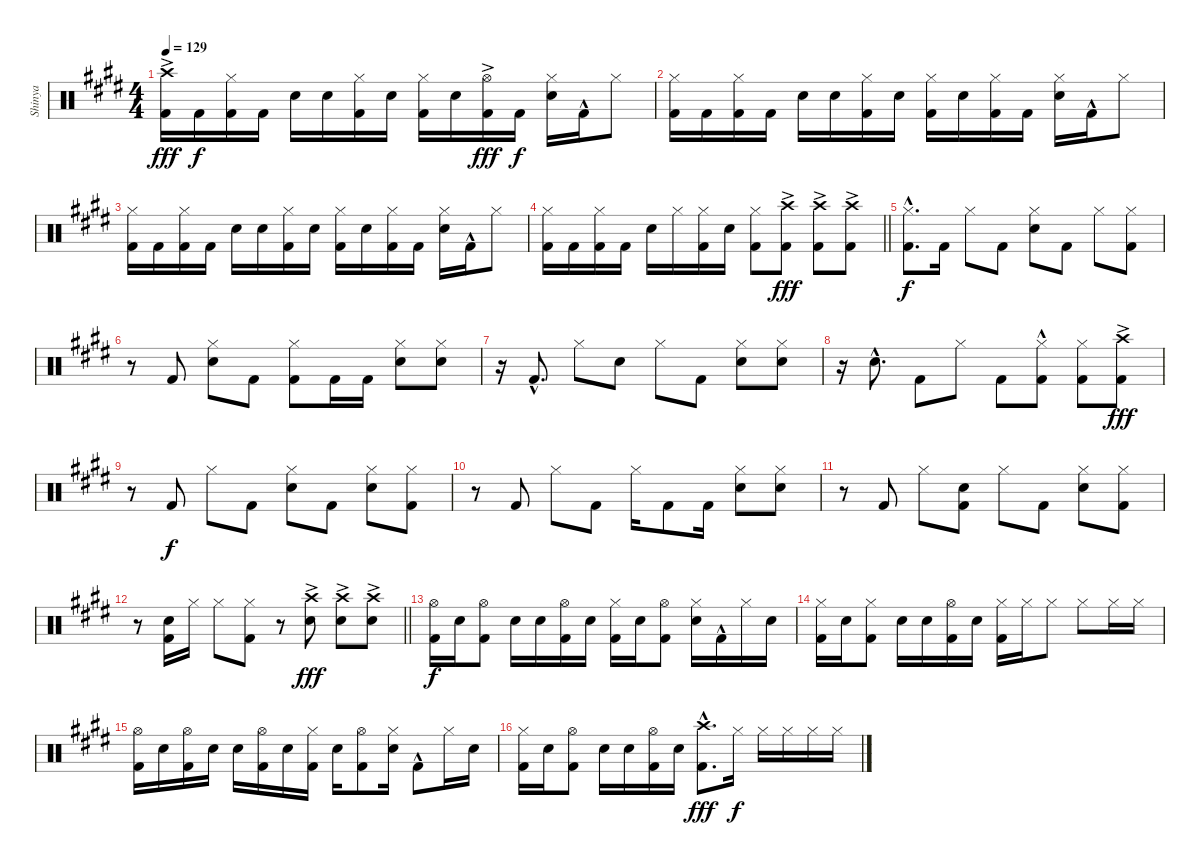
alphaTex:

\track ("Shinya" "Shinya") {instrument percussion}
\staff {score}
\articulation defaults
\ts (4 4)
\tempo 129
\clef neutral
\ks e
("Crash high (hit)"{ac} "Kick (hit) 2").16{dy fff} "Kick (hit) 2".16{dy f} ("Hi-Hat (closed)" "Kick (hit) 2").16 "Kick (hit) 2".16 "Snare (hit) 2".16 "Snare (hit) 2".16 ("Hi-Hat (closed)" "Kick (hit) 2").16 "Snare (hit) 2".16 ("Hi-Hat (closed)" "Kick (hit) 2").16 "Snare (hit) 2".16 ("Hi-Hat (open)"{ac} "Kick (hit) 2").16{dy fff} "Kick (hit) 2".16{dy f} ("Hi-Hat (closed)" "Snare (hit) 2").16 "Kick (hit) 2"{hac}.16 "Hi-Hat (closed)".8 |
("Hi-Hat (closed)" "Kick (hit) 2").16 "Kick (hit) 2".16 ("Hi-Hat (closed)" "Kick (hit) 2").16 "Kick (hit) 2".16 "Snare (hit) 2".16 "Snare (hit) 2".16 ("Hi-Hat (closed)" "Kick (hit) 2").16 "Snare (hit) 2".16 ("Hi-Hat (closed)" "Kick (hit) 2").16 "Snare (hit) 2".16 ("Hi-Hat (closed)" "Kick (hit) 2").16 "Kick (hit) 2".16 ("Hi-Hat (closed)" "Snare (hit) 2").16 "Kick (hit) 2"{hac}.16 "Hi-Hat (closed)".8 |
("Hi-Hat (closed)" "Kick (hit) 2").16 "Kick (hit) 2".16 ("Hi-Hat (closed)" "Kick (hit) 2").16 "Kick (hit) 2".16 "Snare (hit) 2".16 "Snare (hit) 2".16 ("Hi-Hat (closed)" "Kick (hit) 2").16 "Snare (hit) 2".16 ("Hi-Hat (closed)" "Kick (hit) 2").16 "Snare (hit) 2".16 ("Hi-Hat (closed)" "Kick (hit) 2").16 "Kick (hit) 2".16 ("Hi-Hat (closed)" "Snare (hit) 2").16 "Kick (hit) 2"{hac}.16 "Hi-Hat (closed)".8 |
\barLineRight lightlight
("Hi-Hat (closed)" "Kick (hit) 2").16 "Kick (hit) 2".16 ("Hi-Hat (closed)" "Kick (hit) 2").16 "Kick (hit) 2".16 "Snare (hit) 2".16 "Hi-Hat (closed)".16 ("Hi-Hat (closed)" "Kick (hit) 2").16 "Snare (hit) 2".16 ("Hi-Hat (closed)" "Kick (hit) 2").8 ("Crash high (hit)"{ac} "Kick (hit) 2").8{dy fff} ("Crash high (hit)"{ac} "Kick (hit) 2").8 ("Crash high (hit)"{ac} "Kick (hit) 2").8 |
("Hi-Hat (closed)"{hac} "Kick (hit) 2"{hac}).8{d dy f} "Kick (hit) 2".16 "Hi-Hat (closed)".8 "Kick (hit) 2".8 ("Hi-Hat (closed)" "Snare (hit) 2").8 "Kick (hit) 2".8 "Hi-Hat (closed)".8 ("Hi-Hat (closed)" "Kick (hit) 2").8 |
r.8 "Kick (hit) 2".8 ("Hi-Hat (closed)" "Snare (hit) 2").8 "Kick (hit) 2".8 ("Hi-Hat (closed)" "Kick (hit) 2").8 "Kick (hit) 2".16 "Kick (hit) 2".16 ("Hi-Hat (closed)" "Snare (hit) 2").8 ("Hi-Hat (closed)" "Snare (hit) 2").8 |
r.16 "Kick (hit) 2"{hac}.8{d} "Hi-Hat (closed)".8 "Snare (hit) 2".8 "Hi-Hat (closed)".8 "Kick (hit) 2".8 ("Hi-Hat (closed)" "Snare (hit) 2").8 ("Hi-Hat (closed)" "Snare (hit) 2").8 |
r.16 "Snare (hit) 2"{hac}.8{d} "Kick (hit) 2".8 "Hi-Hat (closed)".8 "Kick (hit) 2".8 ("Hi-Hat (closed)" "Kick (hit) 2"{hac}).8 ("Hi-Hat (closed)" "Kick (hit) 2").8 ("Crash high (hit)"{ac} "Kick (hit) 2").8{dy fff} |
r.8 "Kick (hit) 2".8{dy f} "Hi-Hat (closed)".8 "Kick (hit) 2".8 ("Hi-Hat (closed)" "Snare (hit) 2").8 "Kick (hit) 2".8 ("Hi-Hat (closed)" "Snare (hit) 2").8 ("Hi-Hat (closed)" "Kick (hit) 2").8 |
r.8 "Kick (hit) 2".8 "Hi-Hat (closed)".8 "Kick (hit) 2".8 "Hi-Hat (closed)".16 "Kick (hit) 2".8 "Kick (hit) 2".16 ("Hi-Hat (closed)" "Snare (hit) 2").8 ("Hi-Hat (closed)" "Snare (hit) 2").8 |
r.8 "Kick (hit) 2".8 "Hi-Hat (closed)".8 ("Snare (hit) 2" "Kick (hit) 2").8 "Hi-Hat (closed)".8 "Kick (hit) 2".8 ("Hi-Hat (closed)" "Snare (hit) 2").8 ("Hi-Hat (closed)" "Kick (hit) 2").8 |
\barLineRight lightlight
r.8 ("Snare (hit) 2" "Kick (hit) 2").16 "Hi-Hat (closed)".16 "Hi-Hat (closed)".8 ("Hi-Hat (closed)" "Kick (hit) 2").8 r.8 ("Crash high (hit)"{ac} "Snare (hit) 2").8{dy fff} ("Crash high (hit)"{ac} "Snare (hit) 2").8 ("Crash high (hit)"{ac} "Snare (hit) 2").8 |
("Hi-Hat (open)" "Kick (hit) 2").16{dy f} "Snare (hit) 2".16 ("Hi-Hat (open)" "Kick (hit) 2").8 "Snare (hit) 2".16 "Snare (hit) 2".16 ("Hi-Hat (open)" "Kick (hit) 2").16 "Snare (hit) 2".16 ("Hi-Hat (closed)" "Kick (hit) 2").16 "Snare (hit) 2".16 ("Hi-Hat (open)" "Kick (hit) 2").8 ("Hi-Hat (closed)" "Snare (hit) 2").16 "Kick (hit) 2"{hac}.16 "Hi-Hat (closed)".16 "Snare (hit) 2".16 |
("Hi-Hat (closed)" "Kick (hit) 2").16 "Snare (hit) 2".16 ("Hi-Hat (closed)" "Kick (hit) 2").8 "Snare (hit) 2".16 "Snare (hit) 2".16 ("Hi-Hat (open)" "Kick (hit) 2").16 "Snare (hit) 2".16 ("Hi-Hat (closed)" "Kick (hit) 2").16 "Hi-Hat (closed)".16 "Hi-Hat (closed)".8 "Hi-Hat (closed)".8 "Hi-Hat (closed)".16 "Hi-Hat (closed)".16 |
("Hi-Hat (open)" "Kick (hit) 2").16 "Snare (hit) 2".16 ("Hi-Hat (open)" "Kick (hit) 2").16 "Snare (hit) 2".16 "Snare (hit) 2".16 ("Hi-Hat (open)" "Kick (hit) 2").16 "Snare (hit) 2".16 ("Hi-Hat (closed)" "Kick (hit) 2").16 "Snare (hit) 2".16 ("Hi-Hat (open)" "Kick (hit) 2").8 ("Hi-Hat (closed)" "Snare (hit) 2").16 "Kick (hit) 2"{hac}.8 "Hi-Hat (closed)".16 "Snare (hit) 2".16 |
("Hi-Hat (closed)" "Kick (hit) 2").16 "Snare (hit) 2".16 ("Hi-Hat (open)" "Kick (hit) 2").8 "Snare (hit) 2".16 "Snare (hit) 2".16 ("Hi-Hat (open)" "Kick (hit) 2").16 "Snare (hit) 2".16 ("Crash high (hit)"{hac} "Kick (hit) 2"{hac}).8{d dy fff} "Hi-Hat (closed)".16{dy f} "Hi-Hat (closed)".16 "Hi-Hat (closed)".16 "Hi-Hat (closed)".16 "Hi-Hat (closed)".16
